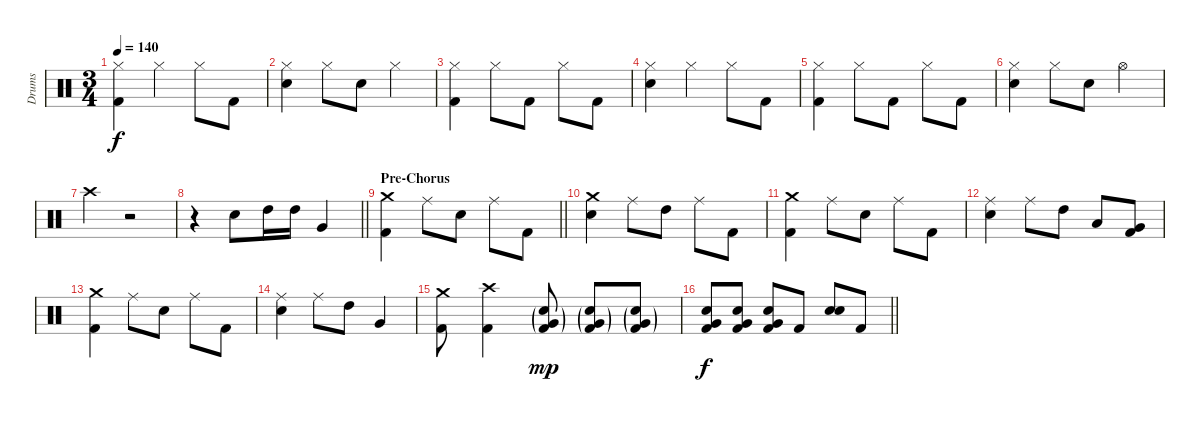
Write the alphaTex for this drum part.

\track ("Drums" "Drums") {instrument percussion}
\staff {score}
\articulation defaults
\ts (3 4)
\tempo 140
\clef neutral
\ks c
("Kick (hit) 2" "Hi-Hat (closed)").4{dy f} "Hi-Hat (closed)".4 "Hi-Hat (closed)".8 "Kick (hit) 2".8 |
("Electric Snare (hit)" "Hi-Hat (closed)").4 "Hi-Hat (closed)".8 "Electric Snare (hit)".8 "Hi-Hat (closed)".4 |
("Kick (hit) 2" "Hi-Hat (closed)").4 "Hi-Hat (closed)".8 "Kick (hit) 2".8 "Hi-Hat (closed)".8 "Kick (hit) 2".8 |
("Electric Snare (hit)" "Hi-Hat (closed)").4 "Hi-Hat (closed)".4 "Hi-Hat (closed)".8 "Kick (hit) 2".8 |
("Kick (hit) 2" "Hi-Hat (closed)").4 "Hi-Hat (closed)".8 "Kick (hit) 2".8 "Hi-Hat (closed)".8 "Kick (hit) 2".8 |
("Electric Snare (hit)" "Hi-Hat (closed)").4 "Hi-Hat (closed)".8 "Electric Snare (hit)".8 "Hi-Hat (open)".4 |
"Crash high (hit)".4 r.2 |
\barLineRight lightlight
r.4 "Electric Snare (hit)".8 "High Tom (hit)".16 "High Tom (hit)".16 "Very Low Tom (hit)".4 |
\section ("" "Pre-Chorus")
\barLineRight lightlight
("Kick (hit) 2" "Crash medium (hit)").4 "Ride (middle)".8 "Electric Snare (hit)".8 "Ride (middle)".8 "Kick (hit) 2".8 |
("Electric Snare (hit)" "Crash medium (hit)").4 "Ride (middle)".8 "High Tom (hit)".8 "Ride (middle)".8 "Kick (hit) 2".8 |
("Kick (hit) 2" "Crash medium (hit)").4 "Ride (middle)".8 "Electric Snare (hit)".8 "Ride (middle)".8 "Kick (hit) 2".8 |
("Electric Snare (hit)" "Ride (middle)").4 "Ride (middle)".8 "High Tom (hit)".8 "Low Tom (hit)".8 ("Kick (hit) 2" "Very Low Tom (hit)").8 |
("Kick (hit) 2" "Crash medium (hit)").4 "Ride (middle)".8 "Electric Snare (hit)".8 "Ride (middle)".8 "Kick (hit) 2".8 |
("Electric Snare (hit)" "Ride (middle)").4 "Ride (middle)".8 "High Tom (hit)".8 "Very Low Tom (hit)".4 |
("Kick (hit) 2" "Crash medium (hit)").8 ("Kick (hit) 2" "Crash high (hit)").4 ("Kick (hit) 2"{g} "Very Low Tom (hit)"{g} "Electric Snare (hit)"{g}).8{dy mp} ("Kick (hit) 2"{g} "Very Low Tom (hit)"{g} "Electric Snare (hit)"{g}).8 ("Kick (hit) 2"{g} "Very Low Tom (hit)"{g} "Electric Snare (hit)"{g}).8 |
\barLineRight lightlight
("Kick (hit) 2" "Very Low Tom (hit)" "Electric Snare (hit)").8{dy f} ("Kick (hit) 2" "Very Low Tom (hit)" "Electric Snare (hit)").8 ("Kick (hit) 2" "Very Low Tom (hit)" "Electric Snare (hit)").8 "Kick (hit) 2".8 ("Electric Snare (hit)" "Electric Snare (hit)").8 "Kick (hit) 2".8
